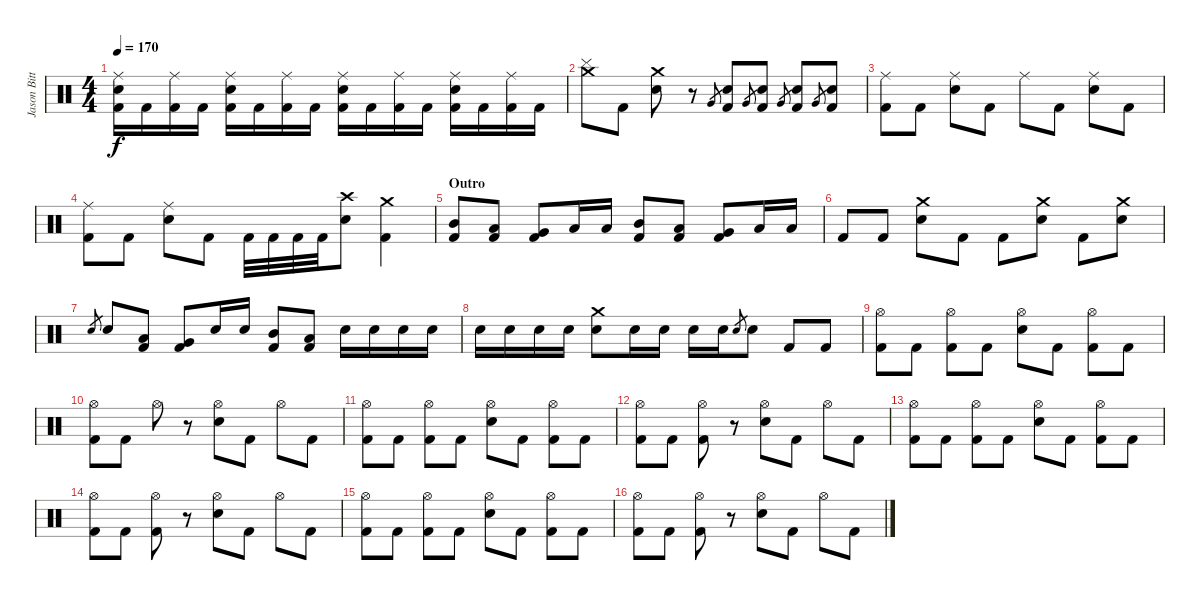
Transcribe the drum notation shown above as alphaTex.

\track ("Jason Bittner" "Jason Bitt") {instrument percussion}
\staff {score}
\articulation defaults
\ts (4 4)
\tempo 170
\clef neutral
\ks c
("Ride (middle)" "Electric Snare (hit)" "Kick (hit) 2").16{dy f} "Kick (hit) 2".16 ("Ride (middle)" "Kick (hit) 2").16 "Kick (hit) 2".16 ("Ride (middle)" "Electric Snare (hit)" "Kick (hit) 2").16 "Kick (hit) 2".16 ("Ride (middle)" "Kick (hit) 2").16 "Kick (hit) 2".16 ("Ride (middle)" "Electric Snare (hit)" "Kick (hit) 2").16 "Kick (hit) 2".16 ("Ride (middle)" "Kick (hit) 2").16 "Kick (hit) 2".16 ("Ride (middle)" "Electric Snare (hit)" "Kick (hit) 2").16 "Kick (hit) 2".16 ("Ride (middle)" "Kick (hit) 2").16 "Kick (hit) 2".16 |
("Crash medium (hit)" "Cymbal (hit)").8 "Kick (hit) 2".8 ("Crash medium (hit)" "Electric Snare (hit)").8 r.8 "Very Low Tom (hit)".8{gr} ("Kick (hit) 2" "Electric Snare (hit)").8 "Very Low Tom (hit)".8{gr} ("Kick (hit) 2" "Electric Snare (hit)").8 "Very Low Tom (hit)".8{gr} ("Kick (hit) 2" "Electric Snare (hit)").8 "Very Low Tom (hit)".8{gr} ("Kick (hit) 2" "Electric Snare (hit)").8 |
("Ride (middle)" "Kick (hit) 2").8 "Kick (hit) 2".8 ("Ride (middle)" "Electric Snare (hit)").8 "Kick (hit) 2".8 "Ride (middle)".8 "Kick (hit) 2".8 ("Ride (middle)" "Electric Snare (hit)").8 "Kick (hit) 2".8 |
("Ride (middle)" "Kick (hit) 2").8 "Kick (hit) 2".8 ("Ride (middle)" "Electric Snare (hit)").8 "Kick (hit) 2".8 "Kick (hit) 2".32 "Kick (hit) 2".32 "Kick (hit) 2".32 "Kick (hit) 2".32 ("Crash high (hit)" "Electric Snare (hit)").8 ("Crash medium (hit)" "Kick (hit) 2").4 |
\section ("" "Outro")
("Kick (hit) 2" "Mid Tom (hit)").8 ("Kick (hit) 2" "Low Tom (hit)").8 ("Kick (hit) 2" "Very Low Tom (hit)").8 "Low Tom (hit)".16 "Low Tom (hit)".16 ("Kick (hit) 2" "Mid Tom (hit)").8 ("Kick (hit) 2" "Low Tom (hit)").8 ("Kick (hit) 2" "Very Low Tom (hit)").8 "Low Tom (hit)".16 "Low Tom (hit)".16 |
"Kick (hit) 2".8 "Kick (hit) 2".8 ("Crash medium (hit)" "Electric Snare (hit)").8 "Kick (hit) 2".8 "Kick (hit) 2".8 ("Crash medium (hit)" "Electric Snare (hit)").8 "Kick (hit) 2".8 ("Crash medium (hit)" "Electric Snare (hit)").8 |
"Electric Snare (hit)".8{gr} "Electric Snare (hit)".8 ("Kick (hit) 2" "Low Tom (hit)").8 ("Kick (hit) 2" "Very Low Tom (hit)").8 "Electric Snare (hit)".16 "Electric Snare (hit)".16 ("Kick (hit) 2" "Mid Tom (hit)").8 ("Kick (hit) 2" "Low Tom (hit)").8 "Electric Snare (hit)".16 "Electric Snare (hit)".16 "Electric Snare (hit)".16 "Electric Snare (hit)".16 |
"Electric Snare (hit)".16 "Electric Snare (hit)".16 "Electric Snare (hit)".16 "Electric Snare (hit)".16 ("Crash medium (hit)" "Electric Snare (hit)").8 "Electric Snare (hit)".16 "Electric Snare (hit)".16 "Electric Snare (hit)".16 "Electric Snare (hit)".16 "Electric Snare (hit)".8{gr} "Electric Snare (hit)".8 "Kick (hit) 2".8 "Kick (hit) 2".8 |
("Hi-Hat (open)" "Kick (hit) 2").8 "Kick (hit) 2".8 ("Hi-Hat (open)" "Kick (hit) 2").8 "Kick (hit) 2".8 ("Hi-Hat (open)" "Electric Snare (hit)").8 "Kick (hit) 2".8 ("Hi-Hat (open)" "Kick (hit) 2").8 "Kick (hit) 2".8 |
("Hi-Hat (open)" "Kick (hit) 2").8 "Kick (hit) 2".8 "Hi-Hat (open)".8 r.8 ("Hi-Hat (open)" "Electric Snare (hit)").8 "Kick (hit) 2".8 "Hi-Hat (open)".8 "Kick (hit) 2".8 |
("Hi-Hat (open)" "Kick (hit) 2").8 "Kick (hit) 2".8 ("Hi-Hat (open)" "Kick (hit) 2").8 "Kick (hit) 2".8 ("Hi-Hat (open)" "Electric Snare (hit)").8 "Kick (hit) 2".8 ("Hi-Hat (open)" "Kick (hit) 2").8 "Kick (hit) 2".8 |
("Hi-Hat (open)" "Kick (hit) 2").8 "Kick (hit) 2".8 ("Hi-Hat (open)" "Kick (hit) 2").8 r.8 ("Hi-Hat (open)" "Electric Snare (hit)").8 "Kick (hit) 2".8 "Hi-Hat (open)".8 "Kick (hit) 2".8 |
("Hi-Hat (open)" "Kick (hit) 2").8 "Kick (hit) 2".8 ("Hi-Hat (open)" "Kick (hit) 2").8 "Kick (hit) 2".8 ("Hi-Hat (open)" "Electric Snare (hit)").8 "Kick (hit) 2".8 ("Hi-Hat (open)" "Kick (hit) 2").8 "Kick (hit) 2".8 |
("Hi-Hat (open)" "Kick (hit) 2").8 "Kick (hit) 2".8 ("Hi-Hat (open)" "Kick (hit) 2").8 r.8 ("Hi-Hat (open)" "Electric Snare (hit)").8 "Kick (hit) 2".8 "Hi-Hat (open)".8 "Kick (hit) 2".8 |
("Hi-Hat (open)" "Kick (hit) 2").8 "Kick (hit) 2".8 ("Hi-Hat (open)" "Kick (hit) 2").8 "Kick (hit) 2".8 ("Hi-Hat (open)" "Electric Snare (hit)").8 "Kick (hit) 2".8 ("Hi-Hat (open)" "Kick (hit) 2").8 "Kick (hit) 2".8 |
("Hi-Hat (open)" "Kick (hit) 2").8 "Kick (hit) 2".8 ("Hi-Hat (open)" "Kick (hit) 2").8 r.8 ("Hi-Hat (open)" "Electric Snare (hit)").8 "Kick (hit) 2".8 "Hi-Hat (open)".8 "Kick (hit) 2".8
